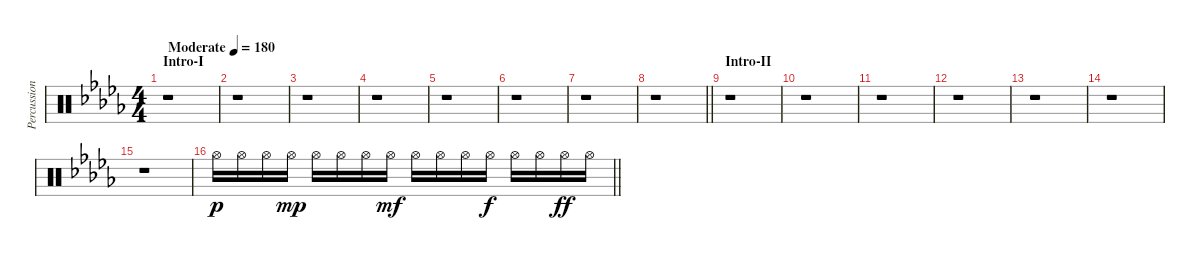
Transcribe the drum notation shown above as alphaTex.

\track ("Percussion" "Percussion") {instrument percussion}
\staff {score}
\articulation defaults
\ts (4 4)
\section ("" "Intro-I")
\tempo (180 "Moderate")
\clef neutral
\ks db
r.1{dy p} |
r.1 |
r.1 |
r.1 |
r.1 |
r.1 |
r.1 |
\barLineRight lightlight
r.1 |
\section ("" "Intro-II")
r.1 |
r.1 |
r.1 |
r.1 |
r.1 |
r.1 |
r.1 |
\barLineRight lightlight "Hi-Hat (open)".16 "Hi-Hat (open)".16 "Hi-Hat (open)".16 "Hi-Hat (open)".16{dy mp} "Hi-Hat (open)".16 "Hi-Hat (open)".16 "Hi-Hat (open)".16 "Hi-Hat (open)".16{dy mf} "Hi-Hat (open)".16 "Hi-Hat (open)".16 "Hi-Hat (open)".16 "Hi-Hat (open)".16{dy f} "Hi-Hat (open)".16 "Hi-Hat (open)".16 "Hi-Hat (open)".16{dy ff} "Hi-Hat (open)".16
